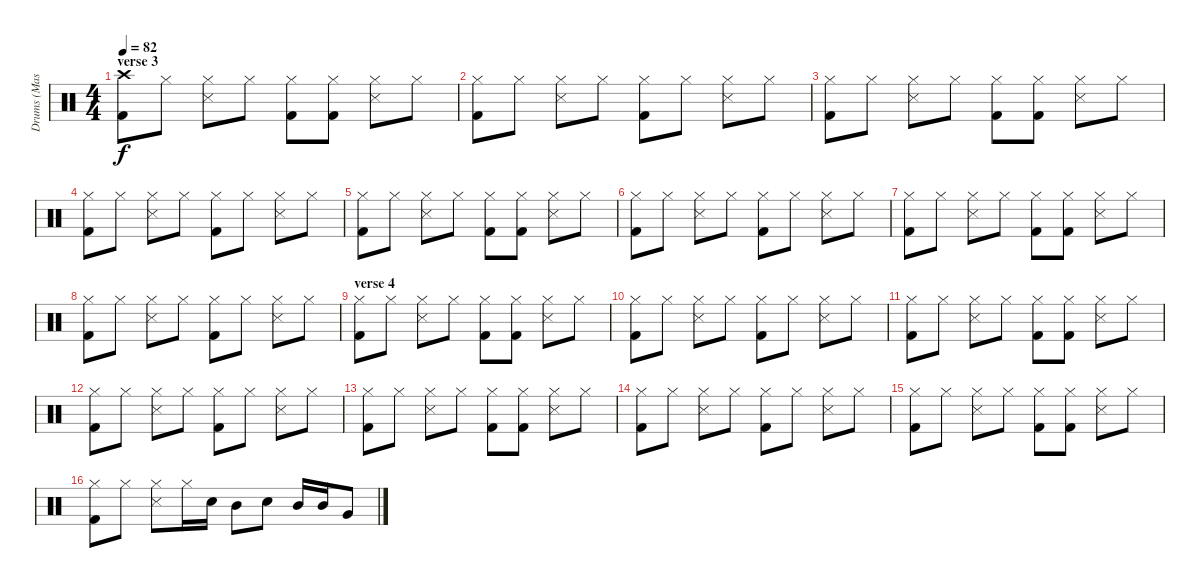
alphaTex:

\track ("Drums (Mason)" "Drums (Mas") {instrument percussion}
\staff {score}
\articulation defaults
\ts (4 4)
\section ("" "verse 3")
\tempo 82
\clef neutral
\ks c
("Crash high (hit)" "Kick (hit) 2").8{dy f} "Hi-Hat (closed)".8 ("Hi-Hat (closed)" "Snare (side stick) 3").8 "Hi-Hat (closed)".8 ("Hi-Hat (closed)" "Kick (hit) 2").8 ("Hi-Hat (closed)" "Kick (hit) 2").8 ("Hi-Hat (closed)" "Snare (side stick) 3").8 "Hi-Hat (closed)".8 |
("Hi-Hat (closed)" "Kick (hit) 2").8 "Hi-Hat (closed)".8 ("Hi-Hat (closed)" "Snare (side stick) 3").8 "Hi-Hat (closed)".8 ("Hi-Hat (closed)" "Kick (hit) 2").8 "Hi-Hat (closed)".8 ("Hi-Hat (closed)" "Snare (side stick) 3").8 "Hi-Hat (closed)".8 |
("Hi-Hat (closed)" "Kick (hit) 2").8 "Hi-Hat (closed)".8 ("Hi-Hat (closed)" "Snare (side stick) 3").8 "Hi-Hat (closed)".8 ("Hi-Hat (closed)" "Kick (hit) 2").8 ("Hi-Hat (closed)" "Kick (hit) 2").8 ("Hi-Hat (closed)" "Snare (side stick) 3").8 "Hi-Hat (closed)".8 |
("Hi-Hat (closed)" "Kick (hit) 2").8 "Hi-Hat (closed)".8 ("Hi-Hat (closed)" "Snare (side stick) 3").8 "Hi-Hat (closed)".8 ("Hi-Hat (closed)" "Kick (hit) 2").8 "Hi-Hat (closed)".8 ("Hi-Hat (closed)" "Snare (side stick) 3").8 "Hi-Hat (closed)".8 |
("Hi-Hat (closed)" "Kick (hit) 2").8 "Hi-Hat (closed)".8 ("Hi-Hat (closed)" "Snare (side stick) 3").8 "Hi-Hat (closed)".8 ("Hi-Hat (closed)" "Kick (hit) 2").8 ("Hi-Hat (closed)" "Kick (hit) 2").8 ("Hi-Hat (closed)" "Snare (side stick) 3").8 "Hi-Hat (closed)".8 |
("Hi-Hat (closed)" "Kick (hit) 2").8 "Hi-Hat (closed)".8 ("Hi-Hat (closed)" "Snare (side stick) 3").8 "Hi-Hat (closed)".8 ("Hi-Hat (closed)" "Kick (hit) 2").8 "Hi-Hat (closed)".8 ("Hi-Hat (closed)" "Snare (side stick) 3").8 "Hi-Hat (closed)".8 |
("Hi-Hat (closed)" "Kick (hit) 2").8 "Hi-Hat (closed)".8 ("Hi-Hat (closed)" "Snare (side stick) 3").8 "Hi-Hat (closed)".8 ("Hi-Hat (closed)" "Kick (hit) 2").8 ("Hi-Hat (closed)" "Kick (hit) 2").8 ("Hi-Hat (closed)" "Snare (side stick) 3").8 "Hi-Hat (closed)".8 |
("Hi-Hat (closed)" "Kick (hit) 2").8 "Hi-Hat (closed)".8 ("Hi-Hat (closed)" "Snare (side stick) 3").8 "Hi-Hat (closed)".8 ("Hi-Hat (closed)" "Kick (hit) 2").8 "Hi-Hat (closed)".8 ("Hi-Hat (closed)" "Snare (side stick) 3").8 "Hi-Hat (closed)".8 |
\section ("" "verse 4")
("Hi-Hat (closed)" "Kick (hit) 2").8 "Hi-Hat (closed)".8 ("Hi-Hat (closed)" "Snare (side stick) 3").8 "Hi-Hat (closed)".8 ("Hi-Hat (closed)" "Kick (hit) 2").8 ("Hi-Hat (closed)" "Kick (hit) 2").8 ("Hi-Hat (closed)" "Snare (side stick) 3").8 "Hi-Hat (closed)".8 |
("Hi-Hat (closed)" "Kick (hit) 2").8 "Hi-Hat (closed)".8 ("Hi-Hat (closed)" "Snare (side stick) 3").8 "Hi-Hat (closed)".8 ("Hi-Hat (closed)" "Kick (hit) 2").8 "Hi-Hat (closed)".8 ("Hi-Hat (closed)" "Snare (side stick) 3").8 "Hi-Hat (closed)".8 |
("Hi-Hat (closed)" "Kick (hit) 2").8 "Hi-Hat (closed)".8 ("Hi-Hat (closed)" "Snare (side stick) 3").8 "Hi-Hat (closed)".8 ("Hi-Hat (closed)" "Kick (hit) 2").8 ("Hi-Hat (closed)" "Kick (hit) 2").8 ("Hi-Hat (closed)" "Snare (side stick) 3").8 "Hi-Hat (closed)".8 |
("Hi-Hat (closed)" "Kick (hit) 2").8 "Hi-Hat (closed)".8 ("Hi-Hat (closed)" "Snare (side stick) 3").8 "Hi-Hat (closed)".8 ("Hi-Hat (closed)" "Kick (hit) 2").8 "Hi-Hat (closed)".8 ("Hi-Hat (closed)" "Snare (side stick) 3").8 "Hi-Hat (closed)".8 |
("Hi-Hat (closed)" "Kick (hit) 2").8 "Hi-Hat (closed)".8 ("Hi-Hat (closed)" "Snare (side stick) 3").8 "Hi-Hat (closed)".8 ("Hi-Hat (closed)" "Kick (hit) 2").8 ("Hi-Hat (closed)" "Kick (hit) 2").8 ("Hi-Hat (closed)" "Snare (side stick) 3").8 "Hi-Hat (closed)".8 |
("Hi-Hat (closed)" "Kick (hit) 2").8 "Hi-Hat (closed)".8 ("Hi-Hat (closed)" "Snare (side stick) 3").8 "Hi-Hat (closed)".8 ("Hi-Hat (closed)" "Kick (hit) 2").8 "Hi-Hat (closed)".8 ("Hi-Hat (closed)" "Snare (side stick) 3").8 "Hi-Hat (closed)".8 |
("Hi-Hat (closed)" "Kick (hit) 2").8 "Hi-Hat (closed)".8 ("Hi-Hat (closed)" "Snare (side stick) 3").8 "Hi-Hat (closed)".8 ("Hi-Hat (closed)" "Kick (hit) 2").8 ("Hi-Hat (closed)" "Kick (hit) 2").8 ("Hi-Hat (closed)" "Snare (side stick) 3").8 "Hi-Hat (closed)".8 |
("Hi-Hat (closed)" "Kick (hit) 2").8 "Hi-Hat (closed)".8 ("Hi-Hat (closed)" "Snare (side stick) 3").8 "Hi-Hat (closed)".16 "Electric Snare (hit)".16 "Mid Tom (hit)".8 "Electric Snare (hit)".8 "Mid Tom (hit)".16 "Mid Tom (hit)".16 "Very Low Tom (hit)".8
